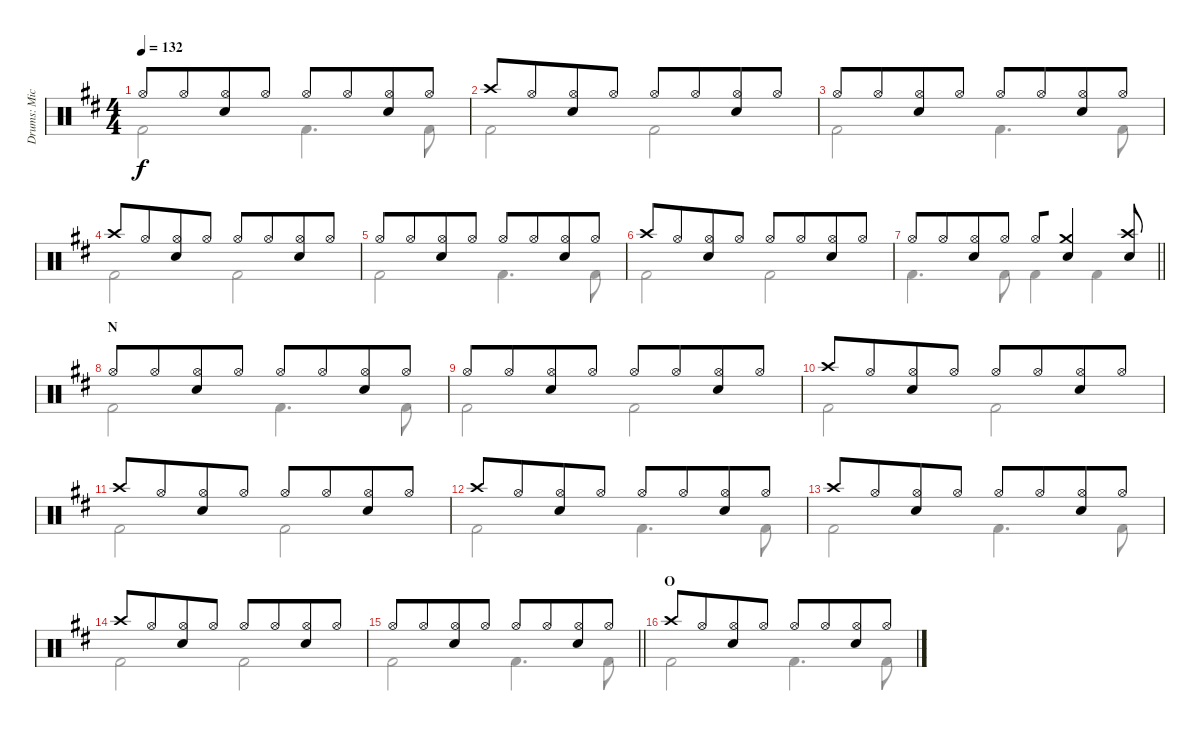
\track ("Drums: Mick" "Drums: Mic") {instrument percussion}
\staff {score}
\articulation defaults
\voice
\ts (4 4)
\tempo 132
\clef neutral
\ks d "Hi-Hat (open)".8{dy f} "Hi-Hat (open)".8{beam merge}
("Hi-Hat (open)" "Snare (hit) 2").8 "Hi-Hat (open)".8 "Hi-Hat (open)".8 "Hi-Hat (open)".8{beam merge} ("Hi-Hat (open)" "Snare (hit) 2").8 "Hi-Hat (open)".8 |
"Crash high (hit)".8 "Hi-Hat (open)".8{beam merge} ("Hi-Hat (open)" "Snare (hit) 2").8 "Hi-Hat (open)".8 "Hi-Hat (open)".8 "Hi-Hat (open)".8{beam merge} ("Hi-Hat (open)" "Snare (hit) 2").8 "Hi-Hat (open)".8 |
"Hi-Hat (open)".8 "Hi-Hat (open)".8{beam merge} ("Hi-Hat (open)" "Snare (hit) 2").8 "Hi-Hat (open)".8 "Hi-Hat (open)".8 "Hi-Hat (open)".8{beam merge} ("Hi-Hat (open)" "Snare (hit) 2").8 "Hi-Hat (open)".8 |
"Crash high (hit)".8 "Hi-Hat (open)".8{beam merge} ("Hi-Hat (open)" "Snare (hit) 2").8 "Hi-Hat (open)".8 "Hi-Hat (open)".8 "Hi-Hat (open)".8{beam merge} ("Hi-Hat (open)" "Snare (hit) 2").8 "Hi-Hat (open)".8 |
"Hi-Hat (open)".8 "Hi-Hat (open)".8{beam merge} ("Hi-Hat (open)" "Snare (hit) 2").8 "Hi-Hat (open)".8 "Hi-Hat (open)".8 "Hi-Hat (open)".8{beam merge} ("Hi-Hat (open)" "Snare (hit) 2").8 "Hi-Hat (open)".8 |
"Crash high (hit)".8 "Hi-Hat (open)".8{beam merge} ("Hi-Hat (open)" "Snare (hit) 2").8 "Hi-Hat (open)".8 "Hi-Hat (open)".8 "Hi-Hat (open)".8{beam merge} ("Hi-Hat (open)" "Snare (hit) 2").8 "Hi-Hat (open)".8 |
\barLineRight lightlight "Hi-Hat (open)".8 "Hi-Hat (open)".8{beam merge}
("Hi-Hat (open)" "Snare (hit) 2").8 "Hi-Hat (open)".8 "Hi-Hat (open)".8{beam merge} ("Crash medium (hit)" "Snare (hit) 2").4 ("Crash high (hit)" "Snare (hit) 2").8 |
\section ("" "N")
"Hi-Hat (open)".8 "Hi-Hat (open)".8{beam merge} ("Hi-Hat (open)" "Snare (hit) 2").8 "Hi-Hat (open)".8 "Hi-Hat (open)".8 "Hi-Hat (open)".8{beam merge} ("Hi-Hat (open)" "Snare (hit) 2").8 "Hi-Hat (open)".8 |
"Hi-Hat (open)".8 "Hi-Hat (open)".8{beam merge} ("Hi-Hat (open)" "Snare (hit) 2").8 "Hi-Hat (open)".8 "Hi-Hat (open)".8 "Hi-Hat (open)".8{beam merge} ("Hi-Hat (open)" "Snare (hit) 2").8 "Hi-Hat (open)".8 |
"Crash high (hit)".8 "Hi-Hat (open)".8{beam merge} ("Hi-Hat (open)" "Snare (hit) 2").8 "Hi-Hat (open)".8 "Hi-Hat (open)".8 "Hi-Hat (open)".8{beam merge} ("Hi-Hat (open)" "Snare (hit) 2").8 "Hi-Hat (open)".8 |
"Crash high (hit)".8 "Hi-Hat (open)".8{beam merge} ("Hi-Hat (open)" "Snare (hit) 2").8 "Hi-Hat (open)".8 "Hi-Hat (open)".8 "Hi-Hat (open)".8{beam merge} ("Hi-Hat (open)" "Snare (hit) 2").8 "Hi-Hat (open)".8 |
"Crash high (hit)".8 "Hi-Hat (open)".8{beam merge} ("Hi-Hat (open)" "Snare (hit) 2").8 "Hi-Hat (open)".8 "Hi-Hat (open)".8 "Hi-Hat (open)".8{beam merge} ("Hi-Hat (open)" "Snare (hit) 2").8 "Hi-Hat (open)".8 |
"Crash high (hit)".8 "Hi-Hat (open)".8{beam merge} ("Hi-Hat (open)" "Snare (hit) 2").8 "Hi-Hat (open)".8 "Hi-Hat (open)".8 "Hi-Hat (open)".8{beam merge} ("Hi-Hat (open)" "Snare (hit) 2").8 "Hi-Hat (open)".8 |
"Crash high (hit)".8 "Hi-Hat (open)".8{beam merge} ("Hi-Hat (open)" "Snare (hit) 2").8 "Hi-Hat (open)".8 "Hi-Hat (open)".8 "Hi-Hat (open)".8{beam merge} ("Hi-Hat (open)" "Snare (hit) 2").8 "Hi-Hat (open)".8 |
\barLineRight lightlight "Hi-Hat (open)".8 "Hi-Hat (open)".8{beam merge}
("Hi-Hat (open)" "Snare (hit) 2").8 "Hi-Hat (open)".8 "Hi-Hat (open)".8 "Hi-Hat (open)".8{beam merge} ("Hi-Hat (open)" "Snare (hit) 2").8 "Hi-Hat (open)".8 |
\section ("" "O")
"Crash high (hit)".8 "Hi-Hat (open)".8{beam merge} ("Hi-Hat (open)" "Snare (hit) 2").8 "Hi-Hat (open)".8 "Hi-Hat (open)".8 "Hi-Hat (open)".8{beam merge} ("Hi-Hat (open)" "Snare (hit) 2").8 "Hi-Hat (open)".8
\voice
\clef neutral
\ottava regular
\simile none
\ks d "Kick (hit) 2".2{dy f} "Kick (hit) 2".4{d} "Kick (hit) 2".8
|
"Kick (hit) 2".2 "Kick (hit) 2".2 |
"Kick (hit) 2".2 "Kick (hit) 2".4{d} "Kick (hit) 2".8 |
"Kick (hit) 2".2 "Kick (hit) 2".2 |
"Kick (hit) 2".2 "Kick (hit) 2".4{d} "Kick (hit) 2".8 |
"Kick (hit) 2".2 "Kick (hit) 2".2 |
\barLineRight lightlight "Kick (hit) 2".4{d} "Kick (hit) 2".8 "Kick (hit) 2".4 "Kick (hit) 2".4
|
"Kick (hit) 2".2 "Kick (hit) 2".4{d} "Kick (hit) 2".8 |
"Kick (hit) 2".2 "Kick (hit) 2".2 |
"Kick (hit) 2".2 "Kick (hit) 2".2 |
"Kick (hit) 2".2 "Kick (hit) 2".2 |
"Kick (hit) 2".2 "Kick (hit) 2".4{d} "Kick (hit) 2".8 |
"Kick (hit) 2".2 "Kick (hit) 2".4{d} "Kick (hit) 2".8 |
"Kick (hit) 2".2 "Kick (hit) 2".2 |
\barLineRight lightlight "Kick (hit) 2".2 "Kick (hit) 2".4{d} "Kick (hit) 2".8
|
"Kick (hit) 2".2 "Kick (hit) 2".4{d} "Kick (hit) 2".8
